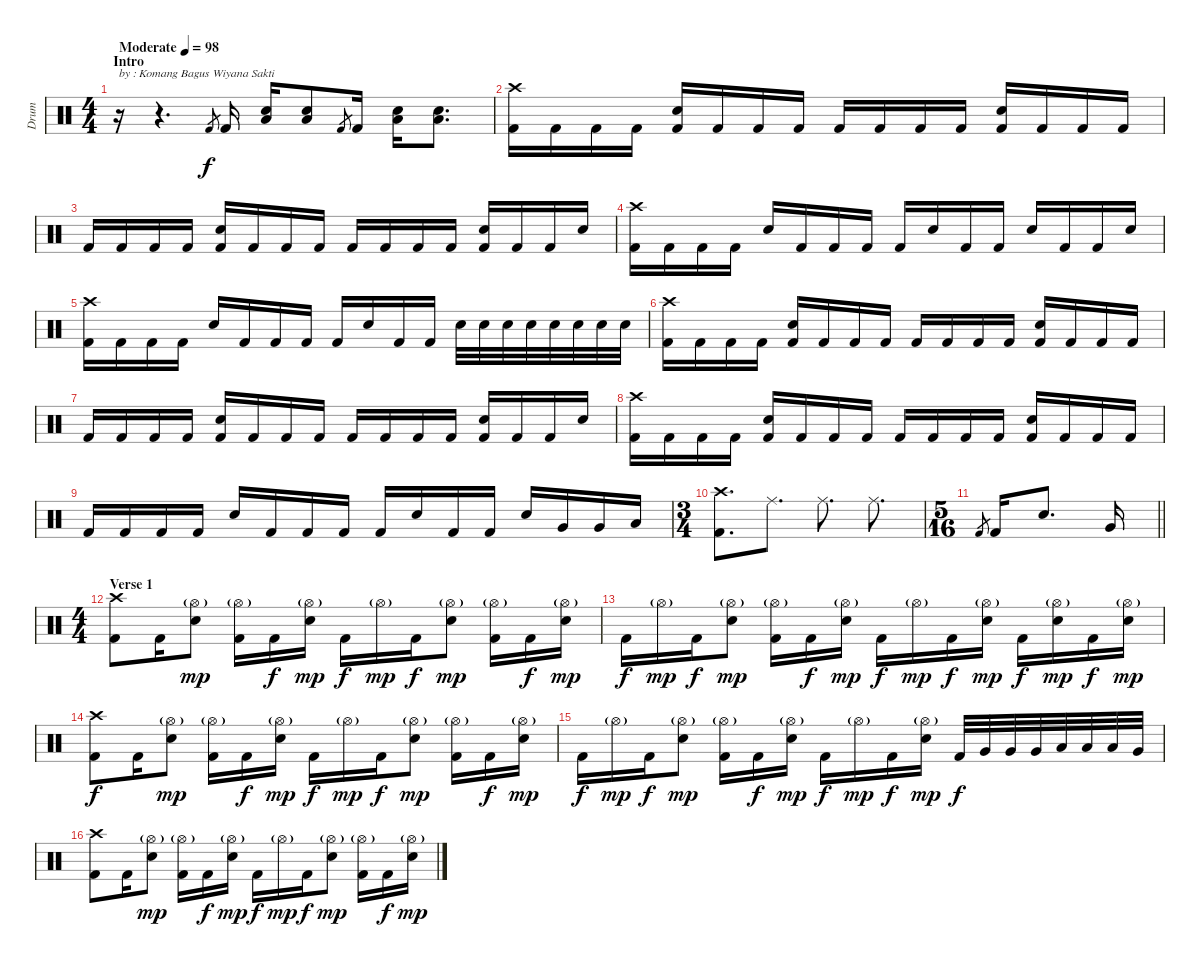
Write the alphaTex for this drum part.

\track ("Drum" "Drum") {instrument percussion}
\staff {score}
\articulation defaults
\ts (4 4)
\section ("" "Intro")
\tempo (98 "Moderate")
\clef neutral
\ks c
r.16{txt "by : Komang Bagus Wiyana Sakti" dy f} r.4{d} "Kick (hit) 2".8{gr} "Kick (hit) 2".16 ("Low Floor Tom (hit)" "Electric Snare (hit)").16 ("Low Floor Tom (hit)" "Electric Snare (hit)").8 "Kick (hit) 2".8{gr} "Kick (hit) 2".16 ("Low Floor Tom (hit)" "Electric Snare (hit)").16 ("Low Floor Tom (hit)" "Electric Snare (hit)").8{d} |
("Crash high (hit)" "Kick (hit) 2").16 "Kick (hit) 2".16 "Kick (hit) 2".16 "Kick (hit) 2".16 ("Electric Snare (hit)" "Kick (hit) 2").16 "Kick (hit) 2".16 "Kick (hit) 2".16 "Kick (hit) 2".16 "Kick (hit) 2".16 "Kick (hit) 2".16 "Kick (hit) 2".16 "Kick (hit) 2".16 ("Electric Snare (hit)" "Kick (hit) 2").16 "Kick (hit) 2".16 "Kick (hit) 2".16 "Kick (hit) 2".16 |
"Kick (hit) 2".16 "Kick (hit) 2".16 "Kick (hit) 2".16 "Kick (hit) 2".16 ("Electric Snare (hit)" "Kick (hit) 2").16 "Kick (hit) 2".16 "Kick (hit) 2".16 "Kick (hit) 2".16 "Kick (hit) 2".16 "Kick (hit) 2".16 "Kick (hit) 2".16 "Kick (hit) 2".16 ("Electric Snare (hit)" "Kick (hit) 2").16 "Kick (hit) 2".16 "Kick (hit) 2".16 "Electric Snare (hit)".16 |
("Crash high (hit)" "Kick (hit) 2").16 "Kick (hit) 2".16 "Kick (hit) 2".16 "Kick (hit) 2".16 "Electric Snare (hit)".16 "Kick (hit) 2".16 "Kick (hit) 2".16 "Kick (hit) 2".16 "Kick (hit) 2".16 "Electric Snare (hit)".16 "Kick (hit) 2".16 "Kick (hit) 2".16 "Electric Snare (hit)".16 "Kick (hit) 2".16 "Kick (hit) 2".16 "Electric Snare (hit)".16 |
("Crash high (hit)" "Kick (hit) 2").16 "Kick (hit) 2".16 "Kick (hit) 2".16 "Kick (hit) 2".16 "Electric Snare (hit)".16 "Kick (hit) 2".16 "Kick (hit) 2".16 "Kick (hit) 2".16 "Kick (hit) 2".16 "Electric Snare (hit)".16 "Kick (hit) 2".16 "Kick (hit) 2".16 "Electric Snare (hit)".32 "Electric Snare (hit)".32 "Electric Snare (hit)".32 "Electric Snare (hit)".32 "Electric Snare (hit)".32 "Electric Snare (hit)".32 "Electric Snare (hit)".32 "Electric Snare (hit)".32 |
("Crash high (hit)" "Kick (hit) 2").16 "Kick (hit) 2".16 "Kick (hit) 2".16 "Kick (hit) 2".16 ("Electric Snare (hit)" "Kick (hit) 2").16 "Kick (hit) 2".16 "Kick (hit) 2".16 "Kick (hit) 2".16 "Kick (hit) 2".16 "Kick (hit) 2".16 "Kick (hit) 2".16 "Kick (hit) 2".16 ("Electric Snare (hit)" "Kick (hit) 2").16 "Kick (hit) 2".16 "Kick (hit) 2".16 "Kick (hit) 2".16 |
"Kick (hit) 2".16 "Kick (hit) 2".16 "Kick (hit) 2".16 "Kick (hit) 2".16 ("Electric Snare (hit)" "Kick (hit) 2").16 "Kick (hit) 2".16 "Kick (hit) 2".16 "Kick (hit) 2".16 "Kick (hit) 2".16 "Kick (hit) 2".16 "Kick (hit) 2".16 "Kick (hit) 2".16 ("Electric Snare (hit)" "Kick (hit) 2").16 "Kick (hit) 2".16 "Kick (hit) 2".16 "Electric Snare (hit)".16 |
("Crash high (hit)" "Kick (hit) 2").16 "Kick (hit) 2".16 "Kick (hit) 2".16 "Kick (hit) 2".16 ("Electric Snare (hit)" "Kick (hit) 2").16 "Kick (hit) 2".16 "Kick (hit) 2".16 "Kick (hit) 2".16 "Kick (hit) 2".16 "Kick (hit) 2".16 "Kick (hit) 2".16 "Kick (hit) 2".16 ("Electric Snare (hit)" "Kick (hit) 2").16 "Kick (hit) 2".16 "Kick (hit) 2".16 "Kick (hit) 2".16 |
"Kick (hit) 2".16 "Kick (hit) 2".16 "Kick (hit) 2".16 "Kick (hit) 2".16 "Electric Snare (hit)".16 "Kick (hit) 2".16 "Kick (hit) 2".16 "Kick (hit) 2".16 "Kick (hit) 2".16 "Electric Snare (hit)".16 "Kick (hit) 2".16 "Kick (hit) 2".16 "Electric Snare (hit)".16 "Very Low Tom (hit)".16 "Very Low Tom (hit)".16 "Low Floor Tom (hit)".16 |
\ts (3 4)
("Crash high (hit)" "Kick (hit) 2").8{d} "Ride (middle)".8{d} "Ride (middle)".8{d} "Ride (middle)".8{d} |
\ts (5 16)
\barLineRight lightlight "Kick (hit) 2".8{gr} "Kick (hit) 2".16 "Electric Snare (hit)".8{d} "Very Low Tom (hit)".16
|
\ts (4 4)
\section ("" "Verse 1")
("Crash high (hit)" "Kick (hit) 2").8 "Kick (hit) 2".16 ("Hi-Hat (open)"{g} "Electric Snare (hit)").8{dy mp} ("Hi-Hat (open)"{g} "Kick (hit) 2").16 "Kick (hit) 2".16{dy f} ("Hi-Hat (open)"{g} "Electric Snare (hit)").16{dy mp} "Kick (hit) 2".16{dy f} "Hi-Hat (open)"{g}.16{dy mp} "Kick (hit) 2".16{dy f} ("Hi-Hat (open)"{g} "Electric Snare (hit)").8{dy mp} ("Hi-Hat (open)"{g} "Kick (hit) 2").16 "Kick (hit) 2".16{dy f} ("Hi-Hat (open)"{g} "Electric Snare (hit)").16{dy mp} |
"Kick (hit) 2".16{dy f} "Hi-Hat (open)"{g}.16{dy mp} "Kick (hit) 2".16{dy f} ("Hi-Hat (open)"{g} "Electric Snare (hit)").8{dy mp} ("Hi-Hat (open)"{g} "Kick (hit) 2").16 "Kick (hit) 2".16{dy f} ("Hi-Hat (open)"{g} "Electric Snare (hit)").16{dy mp} "Kick (hit) 2".16{dy f} "Hi-Hat (open)"{g}.16{dy mp} "Kick (hit) 2".16{dy f} ("Hi-Hat (open)"{g} "Electric Snare (hit)").16{dy mp} "Kick (hit) 2".16{dy f} ("Hi-Hat (open)"{g} "Electric Snare (hit)").16{dy mp} "Kick (hit) 2".16{dy f} ("Hi-Hat (open)"{g} "Electric Snare (hit)").16{dy mp} |
("Crash high (hit)" "Kick (hit) 2").8{dy f} "Kick (hit) 2".16 ("Hi-Hat (open)"{g} "Electric Snare (hit)").8{dy mp} ("Hi-Hat (open)"{g} "Kick (hit) 2").16 "Kick (hit) 2".16{dy f} ("Hi-Hat (open)"{g} "Electric Snare (hit)").16{dy mp} "Kick (hit) 2".16{dy f} "Hi-Hat (open)"{g}.16{dy mp} "Kick (hit) 2".16{dy f} ("Hi-Hat (open)"{g} "Electric Snare (hit)").8{dy mp} ("Hi-Hat (open)"{g} "Kick (hit) 2").16 "Kick (hit) 2".16{dy f} ("Hi-Hat (open)"{g} "Electric Snare (hit)").16{dy mp} |
"Kick (hit) 2".16{dy f} "Hi-Hat (open)"{g}.16{dy mp} "Kick (hit) 2".16{dy f} ("Hi-Hat (open)"{g} "Electric Snare (hit)").8{dy mp} ("Hi-Hat (open)"{g} "Kick (hit) 2").16 "Kick (hit) 2".16{dy f} ("Hi-Hat (open)"{g} "Electric Snare (hit)").16{dy mp} "Kick (hit) 2".16{dy f} "Hi-Hat (open)"{g}.16{dy mp} "Kick (hit) 2".16{dy f} ("Hi-Hat (open)"{g} "Electric Snare (hit)").16{dy mp} "Kick (hit) 2".32{dy f} "Very Low Tom (hit)".32 "Very Low Tom (hit)".32 "Very Low Tom (hit)".32 "Low Floor Tom (hit)".32 "Low Floor Tom (hit)".32 "Low Floor Tom (hit)".32 "Very Low Tom (hit)".32 |
("Crash high (hit)" "Kick (hit) 2").8 "Kick (hit) 2".16 ("Hi-Hat (open)"{g} "Electric Snare (hit)").8{dy mp} ("Hi-Hat (open)"{g} "Kick (hit) 2").16 "Kick (hit) 2".16{dy f} ("Hi-Hat (open)"{g} "Electric Snare (hit)").16{dy mp} "Kick (hit) 2".16{dy f} "Hi-Hat (open)"{g}.16{dy mp} "Kick (hit) 2".16{dy f} ("Hi-Hat (open)"{g} "Electric Snare (hit)").8{dy mp} ("Hi-Hat (open)"{g} "Kick (hit) 2").16 "Kick (hit) 2".16{dy f} ("Hi-Hat (open)"{g} "Electric Snare (hit)").16{dy mp}
